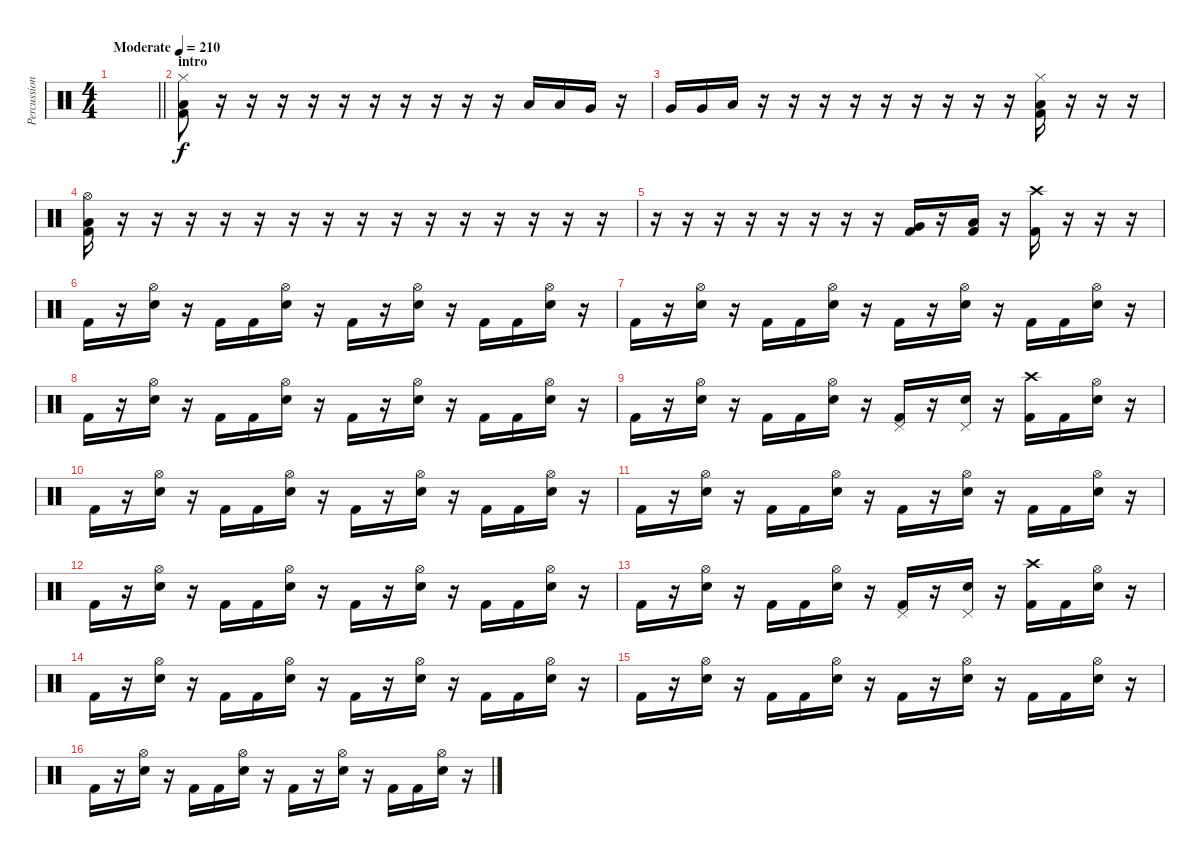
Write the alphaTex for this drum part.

\track ("Percussion" "Percussion") {instrument percussion}
\staff {score}
\articulation defaults
\ts (4 4)
\tempo (210 "Moderate")
\clef neutral
\barLineRight lightlight
\ks c
|
\section ("" "intro")
("Hi-Hat (closed)" "Low Floor Tom (hit)" "Kick (hit) 2").8 r.16 r.16 r.16 r.16 r.16 r.16 r.16 r.16 r.16 r.16 "Low Tom (hit)".16 "Low Tom (hit)".16 "Very Low Tom (hit)".16 r.16 |
"Very Low Tom (hit)".16 "Very Low Tom (hit)".16 "Low Floor Tom (hit)".16 r.16 r.16 r.16 r.16 r.16 r.16 r.16 r.16 r.16 ("Hi-Hat (closed)" "Low Floor Tom (hit)" "Kick (hit) 2").16 r.16 r.16 r.16 |
("Hi-Hat (open)" "Low Floor Tom (hit)" "Kick (hit) 2").16 r.16 r.16 r.16 r.16 r.16 r.16 r.16 r.16 r.16 r.16 r.16 r.16 r.16 r.16 r.16 |
r.16 r.16 r.16 r.16 r.16 r.16 r.16 r.16 ("Very Low Tom (hit)" "Kick (hit) 2").16 r.16 ("Low Floor Tom (hit)" "Kick (hit) 2").16 r.16 ("Crash high (hit)" "Kick (hit) 2").16 r.16 r.16 r.16 |
"Kick (hit) 2".16 r.16 ("Hi-Hat (open)" "Snare (hit) 2").16 r.16 "Kick (hit) 2".16 "Kick (hit) 2".16 ("Hi-Hat (open)" "Snare (hit) 2").16 r.16 "Kick (hit) 2".16 r.16 ("Hi-Hat (open)" "Snare (hit) 2").16 r.16 "Kick (hit) 2".16 "Kick (hit) 2".16 ("Hi-Hat (open)" "Snare (hit) 2").16 r.16 |
"Kick (hit) 2".16 r.16 ("Hi-Hat (open)" "Snare (hit) 2").16 r.16 "Kick (hit) 2".16 "Kick (hit) 2".16 ("Hi-Hat (open)" "Snare (hit) 2").16 r.16 "Kick (hit) 2".16 r.16 ("Hi-Hat (open)" "Snare (hit) 2").16 r.16 "Kick (hit) 2".16 "Kick (hit) 2".16 ("Hi-Hat (open)" "Snare (hit) 2").16 r.16 |
"Kick (hit) 2".16 r.16 ("Hi-Hat (open)" "Snare (hit) 2").16 r.16 "Kick (hit) 2".16 "Kick (hit) 2".16 ("Hi-Hat (open)" "Snare (hit) 2").16 r.16 "Kick (hit) 2".16 r.16 ("Hi-Hat (open)" "Snare (hit) 2").16 r.16 "Kick (hit) 2".16 "Kick (hit) 2".16 ("Hi-Hat (open)" "Snare (hit) 2").16 r.16 |
"Kick (hit) 2".16 r.16 ("Hi-Hat (open)" "Snare (hit) 2").16 r.16 "Kick (hit) 2".16 "Kick (hit) 2".16 ("Hi-Hat (open)" "Snare (hit) 2").16 r.16 ("Pedal Hi-Hat (hit)" "Kick (hit) 2").16 r.16 ("Pedal Hi-Hat (hit)" "Snare (hit) 2").16 r.16 ("Crash high (hit)" "Kick (hit) 2").16 "Kick (hit) 2".16 ("Hi-Hat (open)" "Snare (hit) 2").16 r.16 |
"Kick (hit) 2".16 r.16 ("Hi-Hat (open)" "Snare (hit) 2").16 r.16 "Kick (hit) 2".16 "Kick (hit) 2".16 ("Hi-Hat (open)" "Snare (hit) 2").16 r.16 "Kick (hit) 2".16 r.16 ("Hi-Hat (open)" "Snare (hit) 2").16 r.16 "Kick (hit) 2".16 "Kick (hit) 2".16 ("Hi-Hat (open)" "Snare (hit) 2").16 r.16 |
"Kick (hit) 2".16 r.16 ("Hi-Hat (open)" "Snare (hit) 2").16 r.16 "Kick (hit) 2".16 "Kick (hit) 2".16 ("Hi-Hat (open)" "Snare (hit) 2").16 r.16 "Kick (hit) 2".16 r.16 ("Hi-Hat (open)" "Snare (hit) 2").16 r.16 "Kick (hit) 2".16 "Kick (hit) 2".16 ("Hi-Hat (open)" "Snare (hit) 2").16 r.16 |
"Kick (hit) 2".16 r.16 ("Hi-Hat (open)" "Snare (hit) 2").16 r.16 "Kick (hit) 2".16 "Kick (hit) 2".16 ("Hi-Hat (open)" "Snare (hit) 2").16 r.16 "Kick (hit) 2".16 r.16 ("Hi-Hat (open)" "Snare (hit) 2").16 r.16 "Kick (hit) 2".16 "Kick (hit) 2".16 ("Hi-Hat (open)" "Snare (hit) 2").16 r.16 |
"Kick (hit) 2".16 r.16 ("Hi-Hat (open)" "Snare (hit) 2").16 r.16 "Kick (hit) 2".16 "Kick (hit) 2".16 ("Hi-Hat (open)" "Snare (hit) 2").16 r.16 ("Pedal Hi-Hat (hit)" "Kick (hit) 2").16 r.16 ("Pedal Hi-Hat (hit)" "Snare (hit) 2").16 r.16 ("Crash high (hit)" "Kick (hit) 2").16 "Kick (hit) 2".16 ("Hi-Hat (open)" "Snare (hit) 2").16 r.16 |
"Kick (hit) 2".16 r.16 ("Hi-Hat (open)" "Snare (hit) 2").16 r.16 "Kick (hit) 2".16 "Kick (hit) 2".16 ("Hi-Hat (open)" "Snare (hit) 2").16 r.16 "Kick (hit) 2".16 r.16 ("Hi-Hat (open)" "Snare (hit) 2").16 r.16 "Kick (hit) 2".16 "Kick (hit) 2".16 ("Hi-Hat (open)" "Snare (hit) 2").16 r.16 |
"Kick (hit) 2".16 r.16 ("Hi-Hat (open)" "Snare (hit) 2").16 r.16 "Kick (hit) 2".16 "Kick (hit) 2".16 ("Hi-Hat (open)" "Snare (hit) 2").16 r.16 "Kick (hit) 2".16 r.16 ("Hi-Hat (open)" "Snare (hit) 2").16 r.16 "Kick (hit) 2".16 "Kick (hit) 2".16 ("Hi-Hat (open)" "Snare (hit) 2").16 r.16 |
"Kick (hit) 2".16 r.16 ("Hi-Hat (open)" "Snare (hit) 2").16 r.16 "Kick (hit) 2".16 "Kick (hit) 2".16 ("Hi-Hat (open)" "Snare (hit) 2").16 r.16 "Kick (hit) 2".16 r.16 ("Hi-Hat (open)" "Snare (hit) 2").16 r.16 "Kick (hit) 2".16 "Kick (hit) 2".16 ("Hi-Hat (open)" "Snare (hit) 2").16 r.16
